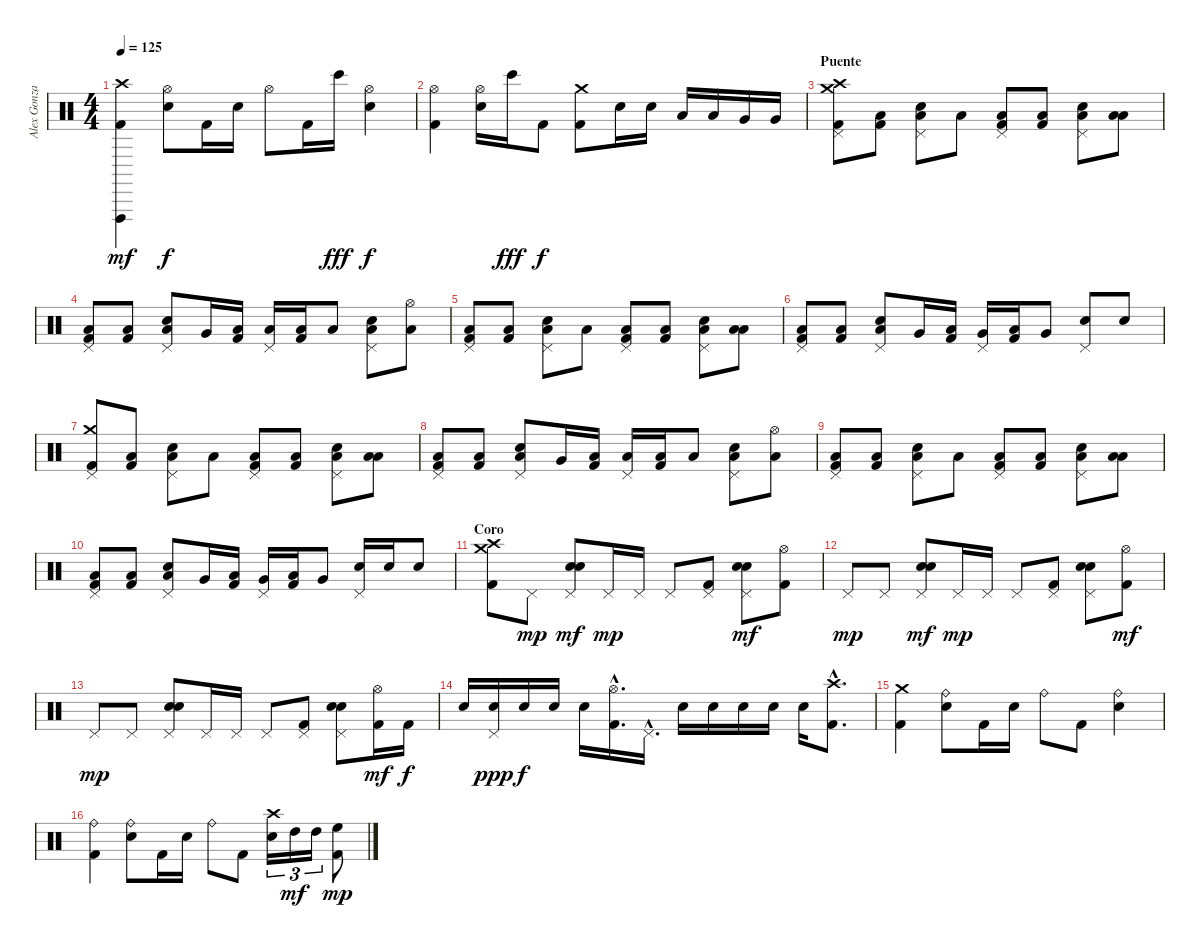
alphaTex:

\track ("Alex Gonzales" "Alex Gonza") {instrument percussion}
\staff {score}
\articulation defaults
\ts (4 4)
\tempo 125
\clef neutral
\ks c
("Crash high (hit)" "Vibraslap (hit)" "Kick (hit) 2").4{dy mf} ("Hi-Hat (open)" "Electric Snare (hit)").8{dy f} "Kick (hit) 2".16 "Electric Snare (hit)".16 "Hi-Hat (open)".8 "Kick (hit) 2".16 "Bongo High (hit)".16{dy fff} ("Hi-Hat (open)" "Electric Snare (hit)").4{dy f} |
("Hi-Hat (open)" "Kick (hit) 2").4 ("Hi-Hat (open)" "Electric Snare (hit)").16 "Bongo High (hit)".16{dy fff} "Kick (hit) 2".8{dy f} ("Crash medium (hit)" "Kick (hit) 2").8 "Electric Snare (hit)".16 "Electric Snare (hit)".16 "Low Tom (hit)".16 "Low Tom (hit)".16 "Very Low Tom (hit)".16 "Very Low Tom (hit)".16 |
\section ("" "Puente")
("Crash medium (hit)" "Crash high (hit)" "Kick (hit) 2" "Pedal Hi-Hat (hit)").8 ("Low Floor Tom (hit)" "Kick (hit) 2").8 ("Electric Snare (hit)" "Low Floor Tom (hit)" "Pedal Hi-Hat (hit)").8 "Low Floor Tom (hit)".8 ("Low Floor Tom (hit)" "Kick (hit) 2" "Pedal Hi-Hat (hit)").8 ("Low Floor Tom (hit)" "Kick (hit) 2").8 ("Electric Snare (hit)" "Low Floor Tom (hit)" "Pedal Hi-Hat (hit)").8 ("Low Tom (hit)" "Low Floor Tom (hit)").8 |
("Low Floor Tom (hit)" "Kick (hit) 2" "Pedal Hi-Hat (hit)").8 ("Low Floor Tom (hit)" "Kick (hit) 2").8 ("Electric Snare (hit)" "Low Floor Tom (hit)" "Pedal Hi-Hat (hit)").8 "Very Low Tom (hit)".16 ("Low Floor Tom (hit)" "Kick (hit) 2").16 ("Low Floor Tom (hit)" "Pedal Hi-Hat (hit)").16 ("Low Floor Tom (hit)" "Kick (hit) 2").16 "Low Floor Tom (hit)".8 ("Electric Snare (hit)" "Low Floor Tom (hit)" "Pedal Hi-Hat (hit)").8 ("Hi-Hat (open)" "Low Floor Tom (hit)").8 |
("Low Floor Tom (hit)" "Kick (hit) 2" "Pedal Hi-Hat (hit)").8 ("Low Floor Tom (hit)" "Kick (hit) 2").8 ("Electric Snare (hit)" "Low Floor Tom (hit)" "Pedal Hi-Hat (hit)").8 "Low Floor Tom (hit)".8 ("Low Floor Tom (hit)" "Kick (hit) 2" "Pedal Hi-Hat (hit)").8 ("Low Floor Tom (hit)" "Kick (hit) 2").8 ("Electric Snare (hit)" "Low Floor Tom (hit)" "Pedal Hi-Hat (hit)").8 ("Low Tom (hit)" "Low Floor Tom (hit)").8 |
("Low Floor Tom (hit)" "Kick (hit) 2" "Pedal Hi-Hat (hit)").8 ("Low Floor Tom (hit)" "Kick (hit) 2").8 ("Electric Snare (hit)" "Low Floor Tom (hit)" "Pedal Hi-Hat (hit)").8 "Very Low Tom (hit)".16 ("Low Floor Tom (hit)" "Kick (hit) 2").16 ("Very Low Tom (hit)" "Pedal Hi-Hat (hit)").16 ("Low Floor Tom (hit)" "Kick (hit) 2").16 "Very Low Tom (hit)".8 ("Electric Snare (hit)" "Pedal Hi-Hat (hit)").8 "Electric Snare (hit)".8 |
("Crash medium (hit)" "Kick (hit) 2" "Pedal Hi-Hat (hit)").8 ("Low Floor Tom (hit)" "Kick (hit) 2").8 ("Electric Snare (hit)" "Low Floor Tom (hit)" "Pedal Hi-Hat (hit)").8 "Low Floor Tom (hit)".8 ("Low Floor Tom (hit)" "Kick (hit) 2" "Pedal Hi-Hat (hit)").8 ("Low Floor Tom (hit)" "Kick (hit) 2").8 ("Electric Snare (hit)" "Low Floor Tom (hit)" "Pedal Hi-Hat (hit)").8 ("Low Tom (hit)" "Low Floor Tom (hit)").8 |
("Low Floor Tom (hit)" "Kick (hit) 2" "Pedal Hi-Hat (hit)").8 ("Low Floor Tom (hit)" "Kick (hit) 2").8 ("Electric Snare (hit)" "Low Floor Tom (hit)" "Pedal Hi-Hat (hit)").8 "Very Low Tom (hit)".16 ("Low Floor Tom (hit)" "Kick (hit) 2").16 ("Low Floor Tom (hit)" "Pedal Hi-Hat (hit)").16 ("Low Floor Tom (hit)" "Kick (hit) 2").16 "Low Floor Tom (hit)".8 ("Electric Snare (hit)" "Low Floor Tom (hit)" "Pedal Hi-Hat (hit)").8 ("Hi-Hat (open)" "Low Floor Tom (hit)").8 |
("Low Floor Tom (hit)" "Kick (hit) 2" "Pedal Hi-Hat (hit)").8 ("Low Floor Tom (hit)" "Kick (hit) 2").8 ("Electric Snare (hit)" "Low Floor Tom (hit)" "Pedal Hi-Hat (hit)").8 "Low Floor Tom (hit)".8 ("Low Floor Tom (hit)" "Kick (hit) 2" "Pedal Hi-Hat (hit)").8 ("Low Floor Tom (hit)" "Kick (hit) 2").8 ("Electric Snare (hit)" "Low Floor Tom (hit)" "Pedal Hi-Hat (hit)").8 ("Low Tom (hit)" "Low Floor Tom (hit)").8 |
("Low Floor Tom (hit)" "Kick (hit) 2" "Pedal Hi-Hat (hit)").8 ("Low Floor Tom (hit)" "Kick (hit) 2").8 ("Electric Snare (hit)" "Low Floor Tom (hit)" "Pedal Hi-Hat (hit)").8 "Very Low Tom (hit)".16 ("Low Floor Tom (hit)" "Kick (hit) 2").16 ("Very Low Tom (hit)" "Pedal Hi-Hat (hit)").16 ("Low Floor Tom (hit)" "Kick (hit) 2").16 "Very Low Tom (hit)".8 ("Electric Snare (hit)" "Pedal Hi-Hat (hit)").16 "Electric Snare (hit)".16 "Electric Snare (hit)".8 |
\section ("" "Coro")
("Crash medium (hit)" "Crash high (hit)" "Kick (hit) 2").8 "Pedal Hi-Hat (hit)".8{dy mp} ("Pedal Hi-Hat (hit)" "Electric Snare (hit)" "Hand Clap (hit)").8{dy mf} "Pedal Hi-Hat (hit)".16{dy mp} "Pedal Hi-Hat (hit)".16 "Pedal Hi-Hat (hit)".8 ("Pedal Hi-Hat (hit)" "Kick (hit) 2").8 ("Pedal Hi-Hat (hit)" "Electric Snare (hit)" "Hand Clap (hit)").8{dy mf} ("Hi-Hat (open)" "Kick (hit) 2").8 |
"Pedal Hi-Hat (hit)".8{dy mp} "Pedal Hi-Hat (hit)".8 ("Pedal Hi-Hat (hit)" "Hand Clap (hit)" "Electric Snare (hit)").8{dy mf} "Pedal Hi-Hat (hit)".16{dy mp} "Pedal Hi-Hat (hit)".16 "Pedal Hi-Hat (hit)".8 ("Pedal Hi-Hat (hit)" "Kick (hit) 2").8 ("Pedal Hi-Hat (hit)" "Hand Clap (hit)" "Electric Snare (hit)").8 ("Hi-Hat (open)" "Kick (hit) 2").8{dy mf} |
"Pedal Hi-Hat (hit)".8{dy mp} "Pedal Hi-Hat (hit)".8 ("Pedal Hi-Hat (hit)" "Hand Clap (hit)" "Electric Snare (hit)").8 "Pedal Hi-Hat (hit)".16 "Pedal Hi-Hat (hit)".16 "Pedal Hi-Hat (hit)".8 ("Pedal Hi-Hat (hit)" "Kick (hit) 2").8 ("Pedal Hi-Hat (hit)" "Hand Clap (hit)" "Electric Snare (hit)").8 ("Hi-Hat (open)" "Kick (hit) 2").16{dy mf} "Kick (hit) 2".16{dy f} |
"Electric Snare (hit)".16 ("Pedal Hi-Hat (hit)" "Electric Snare (hit)").16{dy ppp} "Electric Snare (hit)".16{dy f} "Electric Snare (hit)".16 "Electric Snare (hit)".16 ("Hi-Hat (open)"{hac} "Kick (hit) 2"{hac}).16{d} "Pedal Hi-Hat (hit)"{hac}.16{d} "Electric Snare (hit)".16 "Electric Snare (hit)".16 "Electric Snare (hit)".16 "Electric Snare (hit)".16 "Electric Snare (hit)".16 ("Crash high (hit)"{hac} "Kick (hit) 2"{hac}).8{d} |
("Crash medium (hit)" "Kick (hit) 2").4 ("Ride (bell)" "Electric Snare (hit)").8 "Kick (hit) 2".16 "Electric Snare (hit)".16 "Ride (bell)".8 "Kick (hit) 2".8 ("Ride (bell)" "Electric Snare (hit)").4 |
("Ride (bell)" "Kick (hit) 2").4 ("Ride (bell)" "Electric Snare (hit)").8 "Kick (hit) 2".16 "Electric Snare (hit)".16 "Ride (bell)".8 "Kick (hit) 2".8 ("Crash high (hit)" "Electric Snare (hit)").16{tu (3 2)} "High Tom (hit)".16{tu (3 2) dy mf} "High Tom (hit)".16{tu (3 2)} ("High Floor Tom (hit)" "Kick (hit) 2").8{dy mp}
